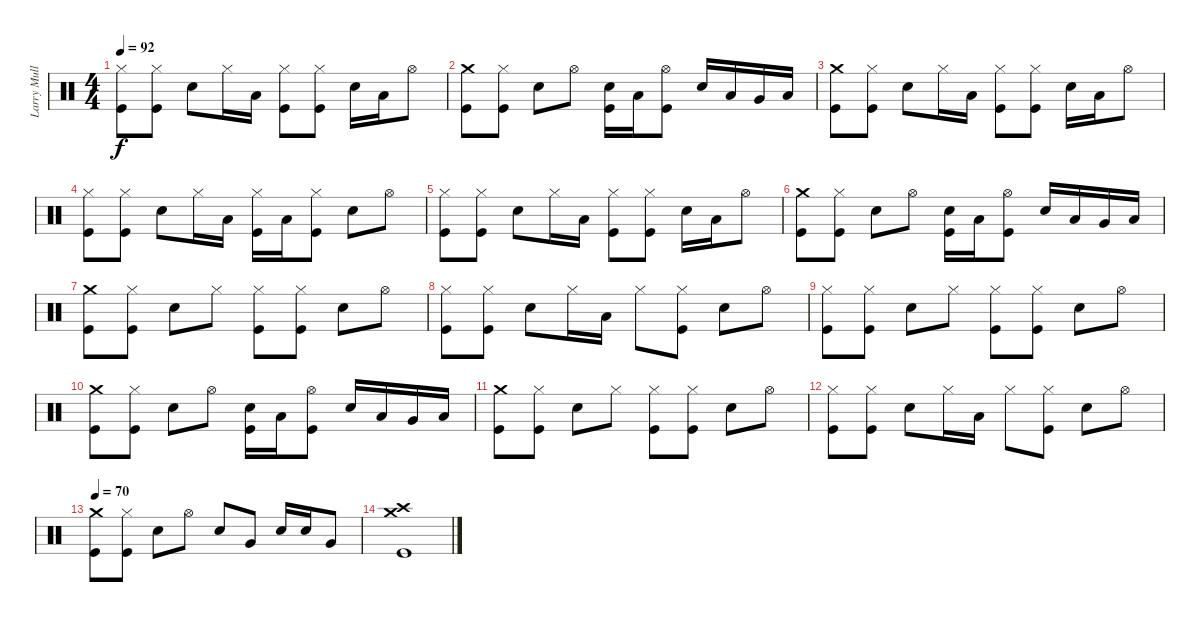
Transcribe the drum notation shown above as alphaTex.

\track ("Larry Mullen Junior" "Larry Mull") {instrument percussion}
\staff {score}
\articulation defaults
\ts (4 4)
\tempo 92
\clef neutral
\ks c
("Hi-Hat (closed)" "Kick (hit)").8{dy f} ("Hi-Hat (closed)" "Kick (hit)").8 "Electric Snare (hit)".8 "Hi-Hat (closed)".16 "Low Floor Tom (hit)".16 ("Hi-Hat (closed)" "Kick (hit)").8 ("Hi-Hat (closed)" "Kick (hit)").8 "Electric Snare (hit)".16 "Low Floor Tom (hit)".16 "Hi-Hat (open)".8 |
("Crash medium (hit)" "Kick (hit)").8 ("Hi-Hat (closed)" "Kick (hit)").8 "Electric Snare (hit)".8 "Hi-Hat (open)".8 ("Electric Snare (hit)" "Kick (hit)").16 "Low Floor Tom (hit)".16 ("Hi-Hat (open)" "Kick (hit)").8 "Electric Snare (hit)".16 "Low Floor Tom (hit)".16 "Very Low Tom (hit)".16 "Low Floor Tom (hit)".16 |
("Crash medium (hit)" "Kick (hit)").8 ("Hi-Hat (closed)" "Kick (hit)").8 "Electric Snare (hit)".8 "Hi-Hat (closed)".16 "Low Floor Tom (hit)".16 ("Hi-Hat (closed)" "Kick (hit)").8 ("Hi-Hat (closed)" "Kick (hit)").8 "Electric Snare (hit)".16 "Low Floor Tom (hit)".16 "Hi-Hat (open)".8 |
("Hi-Hat (closed)" "Kick (hit)").8 ("Hi-Hat (closed)" "Kick (hit)").8 "Electric Snare (hit)".8 "Hi-Hat (closed)".16 "Low Floor Tom (hit)".16 ("Hi-Hat (closed)" "Kick (hit)").16 "Low Floor Tom (hit)".16 ("Hi-Hat (closed)" "Kick (hit)").8 "Electric Snare (hit)".8 "Hi-Hat (open)".8 |
("Hi-Hat (closed)" "Kick (hit)").8 ("Hi-Hat (closed)" "Kick (hit)").8 "Electric Snare (hit)".8 "Hi-Hat (closed)".16 "Low Floor Tom (hit)".16 ("Hi-Hat (closed)" "Kick (hit)").8 ("Hi-Hat (closed)" "Kick (hit)").8 "Electric Snare (hit)".16 "Low Floor Tom (hit)".16 "Hi-Hat (open)".8 |
("Crash medium (hit)" "Kick (hit)").8 ("Hi-Hat (closed)" "Kick (hit)").8 "Electric Snare (hit)".8 "Hi-Hat (open)".8 ("Electric Snare (hit)" "Kick (hit)").16 "Low Floor Tom (hit)".16 ("Hi-Hat (open)" "Kick (hit)").8 "Electric Snare (hit)".16 "Low Floor Tom (hit)".16 "Very Low Tom (hit)".16 "Low Floor Tom (hit)".16 |
("Crash medium (hit)" "Kick (hit)").8 ("Hi-Hat (closed)" "Kick (hit)").8 "Electric Snare (hit)".8 "Hi-Hat (closed)".8 ("Hi-Hat (closed)" "Kick (hit)").8 ("Hi-Hat (closed)" "Kick (hit)").8 "Electric Snare (hit)".8 "Hi-Hat (open)".8 |
("Hi-Hat (closed)" "Kick (hit)").8 ("Hi-Hat (closed)" "Kick (hit)").8 "Electric Snare (hit)".8 "Hi-Hat (closed)".16 "Low Floor Tom (hit)".16 "Hi-Hat (closed)".8 ("Hi-Hat (closed)" "Kick (hit)").8 "Electric Snare (hit)".8 "Hi-Hat (open)".8 |
("Hi-Hat (closed)" "Kick (hit)").8 ("Hi-Hat (closed)" "Kick (hit)").8 "Electric Snare (hit)".8 "Hi-Hat (closed)".8 ("Hi-Hat (closed)" "Kick (hit)").8 ("Hi-Hat (closed)" "Kick (hit)").8 "Electric Snare (hit)".8 "Hi-Hat (open)".8 |
("Crash medium (hit)" "Kick (hit)").8 ("Hi-Hat (closed)" "Kick (hit)").8 "Electric Snare (hit)".8 "Hi-Hat (open)".8 ("Electric Snare (hit)" "Kick (hit)").16 "Low Floor Tom (hit)".16 ("Hi-Hat (open)" "Kick (hit)").8 "Electric Snare (hit)".16 "Low Floor Tom (hit)".16 "Very Low Tom (hit)".16 "Low Floor Tom (hit)".16 |
("Crash medium (hit)" "Kick (hit)").8 ("Hi-Hat (closed)" "Kick (hit)").8 "Electric Snare (hit)".8 "Hi-Hat (closed)".8 ("Hi-Hat (closed)" "Kick (hit)").8 ("Hi-Hat (closed)" "Kick (hit)").8 "Electric Snare (hit)".8 "Hi-Hat (open)".8 |
("Hi-Hat (closed)" "Kick (hit)").8 ("Hi-Hat (closed)" "Kick (hit)").8 "Electric Snare (hit)".8 "Hi-Hat (closed)".16 "Low Floor Tom (hit)".16 "Hi-Hat (closed)".8 ("Hi-Hat (closed)" "Kick (hit)").8 "Electric Snare (hit)".8 "Hi-Hat (open)".8 |
\tempo 70
("Crash medium (hit)" "Kick (hit)").8 ("Hi-Hat (closed)" "Kick (hit)").8 "Electric Snare (hit)".8 "Hi-Hat (open)".8 "Electric Snare (hit)".8 "Very Low Tom (hit)".8 "Electric Snare (hit)".16 "Electric Snare (hit)".16 "Very Low Tom (hit)".8 |
("Crash medium (hit)" "Crash high (hit)" "Kick (hit)").1
